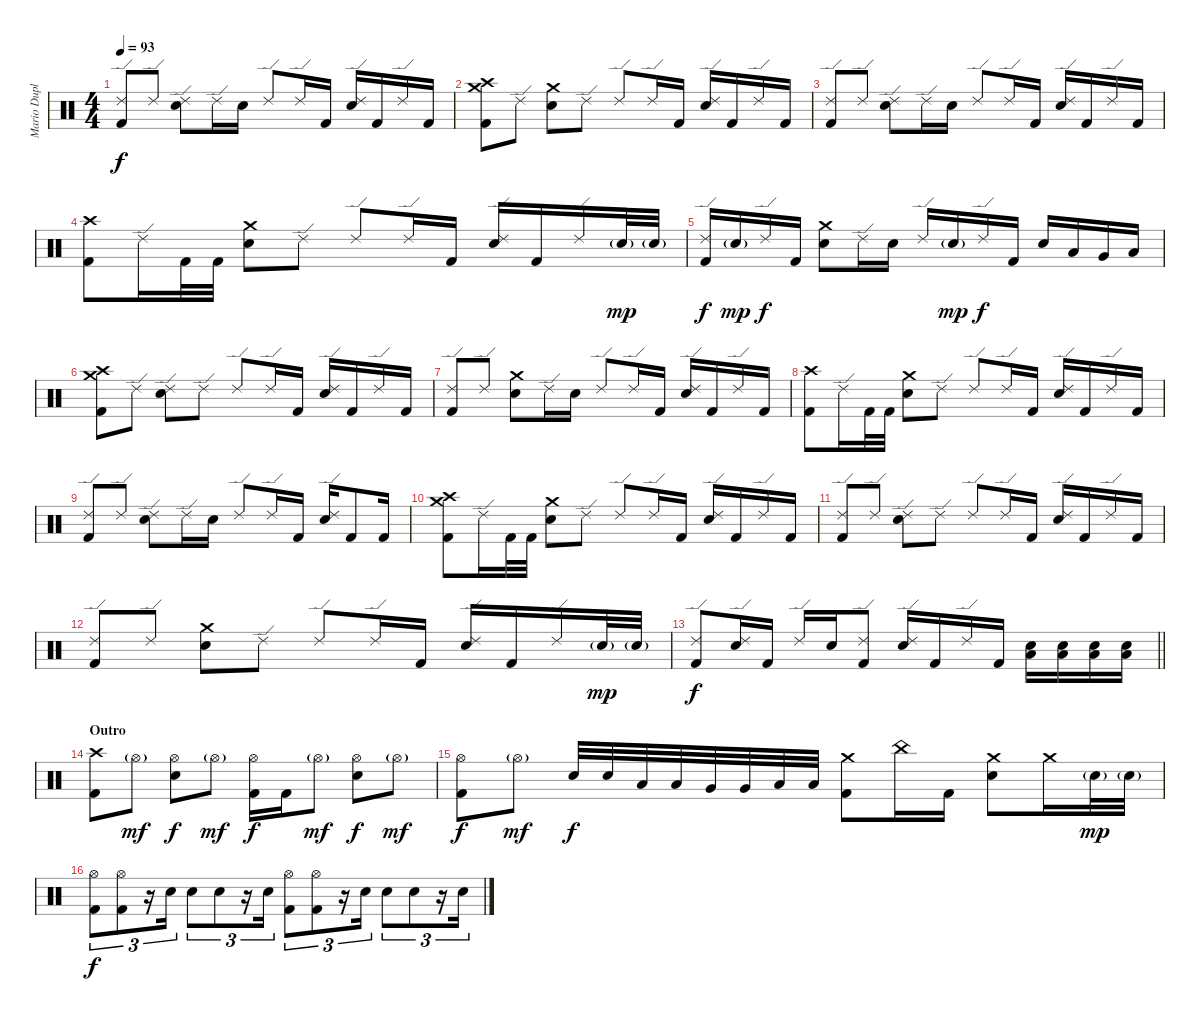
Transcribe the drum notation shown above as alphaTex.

\track ("Mario Duplantier" "Mario Dupl") {instrument percussion}
\staff {score}
\articulation defaults
\ts (4 4)
\tempo 93
\clef neutral
\ks c
("Ride (edge) 2" "Kick (hit) 2").8{dy f} "Ride (edge) 2".8 ("Ride (edge) 2" "Electric Snare (hit)").8 "Ride (edge) 2".16 "Electric Snare (hit)".16 "Ride (edge) 2".8 "Ride (edge) 2".16 "Kick (hit) 2".16 ("Ride (edge) 2" "Electric Snare (hit)").16 "Kick (hit) 2".16 "Ride (edge) 2".16 "Kick (hit) 2".16 |
("Crash high (hit)" "Crash medium (hit)" "Kick (hit) 2").8 "Ride (edge) 2".8 ("Crash medium (hit)" "Electric Snare (hit)").8 "Ride (edge) 2".8 "Ride (edge) 2".8 "Ride (edge) 2".16 "Kick (hit) 2".16 ("Ride (edge) 2" "Electric Snare (hit)").16 "Kick (hit) 2".16 "Ride (edge) 2".16 "Kick (hit) 2".16 |
("Ride (edge) 2" "Kick (hit) 2").8 "Ride (edge) 2".8 ("Ride (edge) 2" "Electric Snare (hit)").8 "Ride (edge) 2".16 "Electric Snare (hit)".16 "Ride (edge) 2".8 "Ride (edge) 2".16 "Kick (hit) 2".16 ("Ride (edge) 2" "Electric Snare (hit)").16 "Kick (hit) 2".16 "Ride (edge) 2".16 "Kick (hit) 2".16 |
("Crash high (hit)" "Kick (hit) 2").8 "Ride (edge) 2".16 "Kick (hit) 2".32 "Kick (hit) 2".32 ("Crash medium (hit)" "Electric Snare (hit)").8 "Ride (edge) 2".8 "Ride (edge) 2".8 "Ride (edge) 2".16 "Kick (hit) 2".16 ("Ride (edge) 2" "Electric Snare (hit)").16 "Kick (hit) 2".16 "Ride (edge) 2".16 "Electric Snare (hit)"{g}.32{dy mp} "Electric Snare (hit)"{g}.32 |
("Ride (edge) 2" "Kick (hit) 2").16{dy f} "Electric Snare (hit)"{g}.16{dy mp} "Ride (edge) 2".16{dy f} "Kick (hit) 2".16 ("Crash medium (hit)" "Electric Snare (hit)").8 "Ride (edge) 2".16 "Electric Snare (hit)".16 "Ride (edge) 2".16 "Electric Snare (hit)"{g}.16{dy mp} "Ride (edge) 2".16{dy f} "Kick (hit) 2".16 "Electric Snare (hit)".16 "Low Tom (hit)".16 "Very Low Tom (hit)".16 "Low Floor Tom (hit)".16 |
("Crash high (hit)" "Crash medium (hit)" "Kick (hit) 2").8 "Ride (edge) 2".8 ("Ride (edge) 2" "Electric Snare (hit)").8 "Ride (edge) 2".8 "Ride (edge) 2".8 "Ride (edge) 2".16 "Kick (hit) 2".16 ("Ride (edge) 2" "Electric Snare (hit)").16 "Kick (hit) 2".16 "Ride (edge) 2".16 "Kick (hit) 2".16 |
("Ride (edge) 2" "Kick (hit) 2").8 "Ride (edge) 2".8 ("Crash medium (hit)" "Electric Snare (hit)").8 "Ride (edge) 2".16 "Electric Snare (hit)".16 "Ride (edge) 2".8 "Ride (edge) 2".16 "Kick (hit) 2".16 ("Ride (edge) 2" "Electric Snare (hit)").16 "Kick (hit) 2".16 "Ride (edge) 2".16 "Kick (hit) 2".16 |
("Crash high (hit)" "Kick (hit) 2").8 "Ride (edge) 2".16 "Kick (hit) 2".32 "Kick (hit) 2".32 ("Crash medium (hit)" "Electric Snare (hit)").8 "Ride (edge) 2".8 "Ride (edge) 2".8 "Ride (edge) 2".16 "Kick (hit) 2".16 ("Ride (edge) 2" "Electric Snare (hit)").16 "Kick (hit) 2".16 "Ride (edge) 2".16 "Kick (hit) 2".16 |
("Ride (edge) 2" "Kick (hit) 2").8 "Ride (edge) 2".8 ("Ride (edge) 2" "Electric Snare (hit)").8 "Ride (edge) 2".16 "Electric Snare (hit)".16 "Ride (edge) 2".8 "Ride (edge) 2".16 "Kick (hit) 2".16 ("Ride (edge) 2" "Electric Snare (hit)").16 "Kick (hit) 2".8 "Kick (hit) 2".16 |
("Crash high (hit)" "Crash medium (hit)" "Kick (hit) 2").8 "Ride (edge) 2".16 "Kick (hit) 2".32 "Kick (hit) 2".32 ("Crash medium (hit)" "Electric Snare (hit)").8 "Ride (edge) 2".8 "Ride (edge) 2".8 "Ride (edge) 2".16 "Kick (hit) 2".16 ("Ride (edge) 2" "Electric Snare (hit)").16 "Kick (hit) 2".16 "Ride (edge) 2".16 "Kick (hit) 2".16 |
("Ride (edge) 2" "Kick (hit) 2").8 "Ride (edge) 2".8 ("Ride (edge) 2" "Electric Snare (hit)").8 "Ride (edge) 2".8 "Ride (edge) 2".8 "Ride (edge) 2".16 "Kick (hit) 2".16 ("Ride (edge) 2" "Electric Snare (hit)").16 "Kick (hit) 2".16 "Ride (edge) 2".16 "Kick (hit) 2".16 |
("Ride (edge) 2" "Kick (hit) 2").8 "Ride (edge) 2".8 ("Crash medium (hit)" "Electric Snare (hit)").8 "Ride (edge) 2".8 "Ride (edge) 2".8 "Ride (edge) 2".16 "Kick (hit) 2".16 ("Ride (edge) 2" "Electric Snare (hit)").16 "Kick (hit) 2".16 "Ride (edge) 2".16 "Electric Snare (hit)"{g}.32{dy mp} "Electric Snare (hit)"{g}.32 |
\barLineRight lightlight
("Ride (edge) 2" "Kick (hit) 2").8{dy f} ("Ride (edge) 2" "Electric Snare (hit)").16 "Kick (hit) 2".16 "Ride (edge) 2".16 "Electric Snare (hit)".16 ("Ride (edge) 2" "Kick (hit) 2").8 ("Ride (edge) 2" "Electric Snare (hit)").16 "Kick (hit) 2".16 "Ride (edge) 2".16 "Kick (hit) 2".16 ("Low Floor Tom (hit)" "Electric Snare (hit)").16 ("Low Floor Tom (hit)" "Electric Snare (hit)").16 ("Low Floor Tom (hit)" "Electric Snare (hit)").16 ("Low Floor Tom (hit)" "Electric Snare (hit)").16 |
\section ("" "Outro")
("Crash high (hit)" "Kick (hit) 2").8 "Hi-Hat (open)"{g}.8{dy mf} ("Hi-Hat (open)" "Electric Snare (hit)").8{dy f} "Hi-Hat (open)"{g}.8{dy mf} ("Hi-Hat (open)" "Kick (hit) 2").16{dy f} "Kick (hit) 2".16 "Hi-Hat (open)"{g}.8{dy mf} ("Hi-Hat (open)" "Electric Snare (hit)").8{dy f} "Hi-Hat (open)"{g}.8{dy mf} |
("Hi-Hat (open)" "Kick (hit) 2").8{dy f} "Hi-Hat (open)"{g}.8{dy mf} "Electric Snare (hit)".32{dy f} "Electric Snare (hit)".32 "Low Tom (hit)".32 "Low Tom (hit)".32 "Very Low Tom (hit)".32 "Very Low Tom (hit)".32 "Low Floor Tom (hit)".32 "Low Floor Tom (hit)".32 ("Crash medium (hit)" "Kick (hit) 2").8 "China (hit)".16 "Kick (hit) 2".16 ("Crash medium (hit)" "Electric Snare (hit)").8 "Crash medium (hit)".16 "Electric Snare (hit)"{g}.32{dy mp} "Electric Snare (hit)"{g}.32 |
("Hi-Hat (open)" "Kick (hit) 2").8{tu (3 2) dy f} ("Hi-Hat (open)" "Kick (hit) 2").8{tu (3 2)} r.16{tu (3 2)} "Electric Snare (hit)".16{tu (3 2)} "Electric Snare (hit)".8{tu (3 2)} "Electric Snare (hit)".8{tu (3 2)} r.16{tu (3 2)} "Electric Snare (hit)".16{tu (3 2)} ("Hi-Hat (open)" "Kick (hit) 2").8{tu (3 2)} ("Hi-Hat (open)" "Kick (hit) 2").8{tu (3 2)} r.16{tu (3 2)} "Electric Snare (hit)".16{tu (3 2)} "Electric Snare (hit)".8{tu (3 2)} "Electric Snare (hit)".8{tu (3 2)} r.16{tu (3 2)} "Electric Snare (hit)".16{tu (3 2)}
